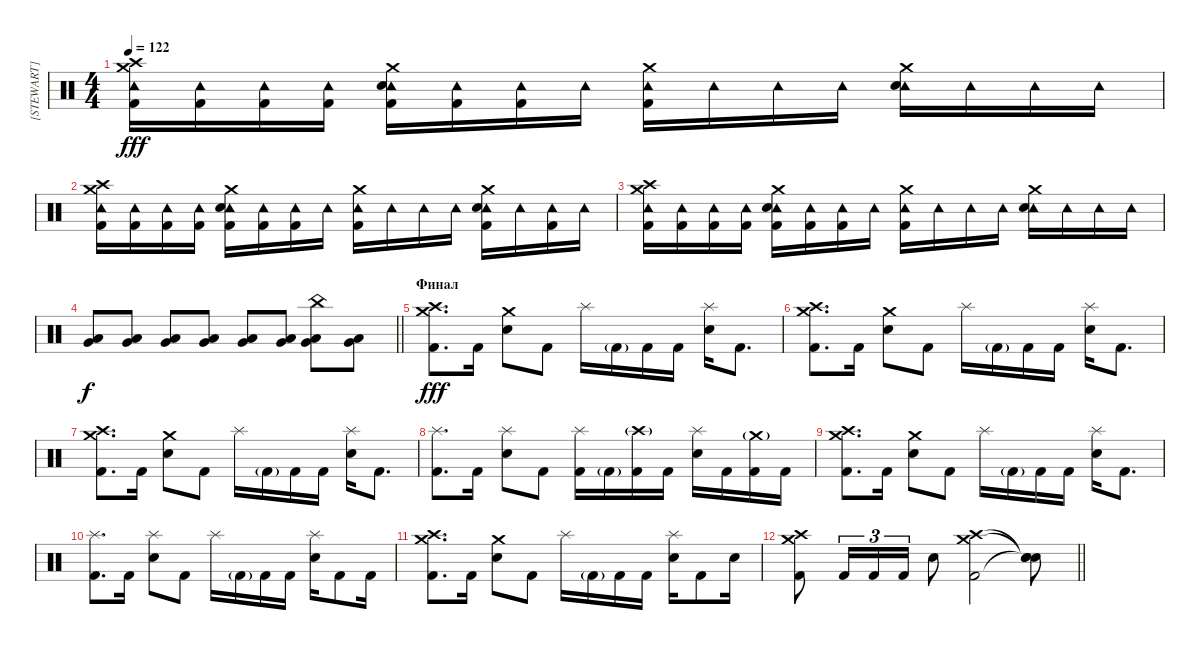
\track ("[STEWART]" "[STEWART]") {instrument percussion}
\staff {score}
\articulation defaults
\ts (4 4)
\tempo 122
\clef neutral
\ks c
("Crash medium (hit)" "Crash high (hit)" "Tambourine (hit)" "Kick (hit) 2").16{dy fff} ("Tambourine (hit)" "Kick (hit) 2").16 ("Tambourine (hit)" "Kick (hit) 2").16 ("Tambourine (hit)" "Kick (hit) 2").16 ("Crash medium (hit)" "Tambourine (hit)" "Electric Snare (hit)" "Kick (hit) 2").16 ("Tambourine (hit)" "Kick (hit) 2").16 ("Tambourine (hit)" "Kick (hit) 2").16 "Tambourine (hit)".16 ("Crash medium (hit)" "Tambourine (hit)" "Kick (hit) 2").16 "Tambourine (hit)".16 "Tambourine (hit)".16 "Tambourine (hit)".16 ("Crash medium (hit)" "Tambourine (hit)" "Electric Snare (hit)").16 "Tambourine (hit)".16 "Tambourine (hit)".16 "Tambourine (hit)".16 |
("Crash medium (hit)" "Crash high (hit)" "Tambourine (hit)" "Kick (hit) 2").16 ("Tambourine (hit)" "Kick (hit) 2").16 ("Tambourine (hit)" "Kick (hit) 2").16 ("Tambourine (hit)" "Kick (hit) 2").16 ("Crash medium (hit)" "Tambourine (hit)" "Electric Snare (hit)" "Kick (hit) 2").16 ("Tambourine (hit)" "Kick (hit) 2").16 ("Tambourine (hit)" "Kick (hit) 2").16 "Tambourine (hit)".16 ("Crash medium (hit)" "Tambourine (hit)" "Kick (hit) 2").16 "Tambourine (hit)".16 "Tambourine (hit)".16 "Tambourine (hit)".16 ("Crash medium (hit)" "Tambourine (hit)" "Electric Snare (hit)" "Kick (hit) 2").16 "Tambourine (hit)".16 ("Tambourine (hit)" "Kick (hit) 2").16 "Tambourine (hit)".16 |
("Crash medium (hit)" "Crash high (hit)" "Tambourine (hit)" "Kick (hit) 2").16 ("Tambourine (hit)" "Kick (hit) 2").16 ("Tambourine (hit)" "Kick (hit) 2").16 ("Tambourine (hit)" "Kick (hit) 2").16 ("Crash medium (hit)" "Tambourine (hit)" "Electric Snare (hit)" "Kick (hit) 2").16 ("Tambourine (hit)" "Kick (hit) 2").16 ("Tambourine (hit)" "Kick (hit) 2").16 "Tambourine (hit)".16 ("Crash medium (hit)" "Tambourine (hit)" "Kick (hit) 2").16 "Tambourine (hit)".16 "Tambourine (hit)".16 "Tambourine (hit)".16 ("Crash medium (hit)" "Tambourine (hit)" "Electric Snare (hit)").16 "Tambourine (hit)".16 "Tambourine (hit)".16 "Tambourine (hit)".16 |
\barLineRight lightlight
("Low Tom (hit)" "Very Low Tom (hit)").8{dy f} ("Low Tom (hit)" "Very Low Tom (hit)").8 ("Low Tom (hit)" "Very Low Tom (hit)").8 ("Low Tom (hit)" "Very Low Tom (hit)").8 ("Low Tom (hit)" "Very Low Tom (hit)").8 ("Low Tom (hit)" "Very Low Tom (hit)").8 ("China (hit)" "Low Tom (hit)" "Very Low Tom (hit)").8 ("Low Tom (hit)" "Very Low Tom (hit)").8 |
\section ("" "Финал")
("Crash medium (hit)" "Crash high (hit)" "Kick (hit) 2").8{d dy fff} "Kick (hit) 2".16 ("Crash medium (hit)" "Electric Snare (hit)").8 "Kick (hit) 2".8 "Splash (hit)".16 "Kick (hit) 2"{g}.16 "Kick (hit) 2".16 "Kick (hit) 2".16 ("Splash (hit)" "Electric Snare (hit)").16 "Kick (hit) 2".8{d} |
("Crash medium (hit)" "Crash high (hit)" "Kick (hit) 2").8{d} "Kick (hit) 2".16 ("Crash medium (hit)" "Electric Snare (hit)").8 "Kick (hit) 2".8 "Splash (hit)".16 "Kick (hit) 2"{g}.16 "Kick (hit) 2".16 "Kick (hit) 2".16 ("Splash (hit)" "Electric Snare (hit)").16 "Kick (hit) 2".8{d} |
("Crash medium (hit)" "Crash high (hit)" "Kick (hit) 2").8{d} "Kick (hit) 2".16 ("Crash medium (hit)" "Electric Snare (hit)").8 "Kick (hit) 2".8 "Splash (hit)".16 "Kick (hit) 2"{g}.16 "Kick (hit) 2".16 "Kick (hit) 2".16 ("Splash (hit)" "Electric Snare (hit)").16 "Kick (hit) 2".8{d} |
("Splash (hit)" "Kick (hit) 2").8{d} "Kick (hit) 2".16 ("Splash (hit)" "Electric Snare (hit)").8 "Kick (hit) 2".8 ("Splash (hit)" "Kick (hit) 2").16 "Kick (hit) 2"{g}.16 ("Crash high (hit)"{g} "Kick (hit) 2").16 "Kick (hit) 2".16 ("Splash (hit)" "Electric Snare (hit)").16 "Kick (hit) 2".16 ("Crash medium (hit)"{g} "Kick (hit) 2").16 "Kick (hit) 2".16 |
("Crash medium (hit)" "Crash high (hit)" "Kick (hit) 2").8{d} "Kick (hit) 2".16 ("Crash medium (hit)" "Electric Snare (hit)").8 "Kick (hit) 2".8 "Splash (hit)".16 "Kick (hit) 2"{g}.16 "Kick (hit) 2".16 "Kick (hit) 2".16 ("Splash (hit)" "Electric Snare (hit)").16 "Kick (hit) 2".8{d} |
("Splash (hit)" "Kick (hit) 2").8{d} "Kick (hit) 2".16 ("Splash (hit)" "Electric Snare (hit)").8 "Kick (hit) 2".8 "Splash (hit)".16 "Kick (hit) 2"{g}.16 "Kick (hit) 2".16 "Kick (hit) 2".16 ("Splash (hit)" "Electric Snare (hit)").16 "Kick (hit) 2".8 "Kick (hit) 2".16 |
("Crash medium (hit)" "Crash high (hit)" "Kick (hit) 2").8{d} "Kick (hit) 2".16 ("Crash medium (hit)" "Electric Snare (hit)").8 "Kick (hit) 2".8 "Splash (hit)".16 "Kick (hit) 2"{g}.16 "Kick (hit) 2".16 "Kick (hit) 2".16 ("Splash (hit)" "Electric Snare (hit)").16 "Kick (hit) 2".8 "Electric Snare (hit)".16 |
\barLineRight lightlight
("Crash medium (hit)" "Crash high (hit)" "Kick (hit) 2").8 "Kick (hit) 2".16{tu (3 2)} "Kick (hit) 2".16{tu (3 2)} "Kick (hit) 2".16{tu (3 2)} "Electric Snare (hit)".8 ("Crash medium (hit)" "Crash high (hit)" "Kick (hit) 2").2 ("Snare (hit)"{t} "Snare (hit)"{t} "Snare (hit)"{t}).8
